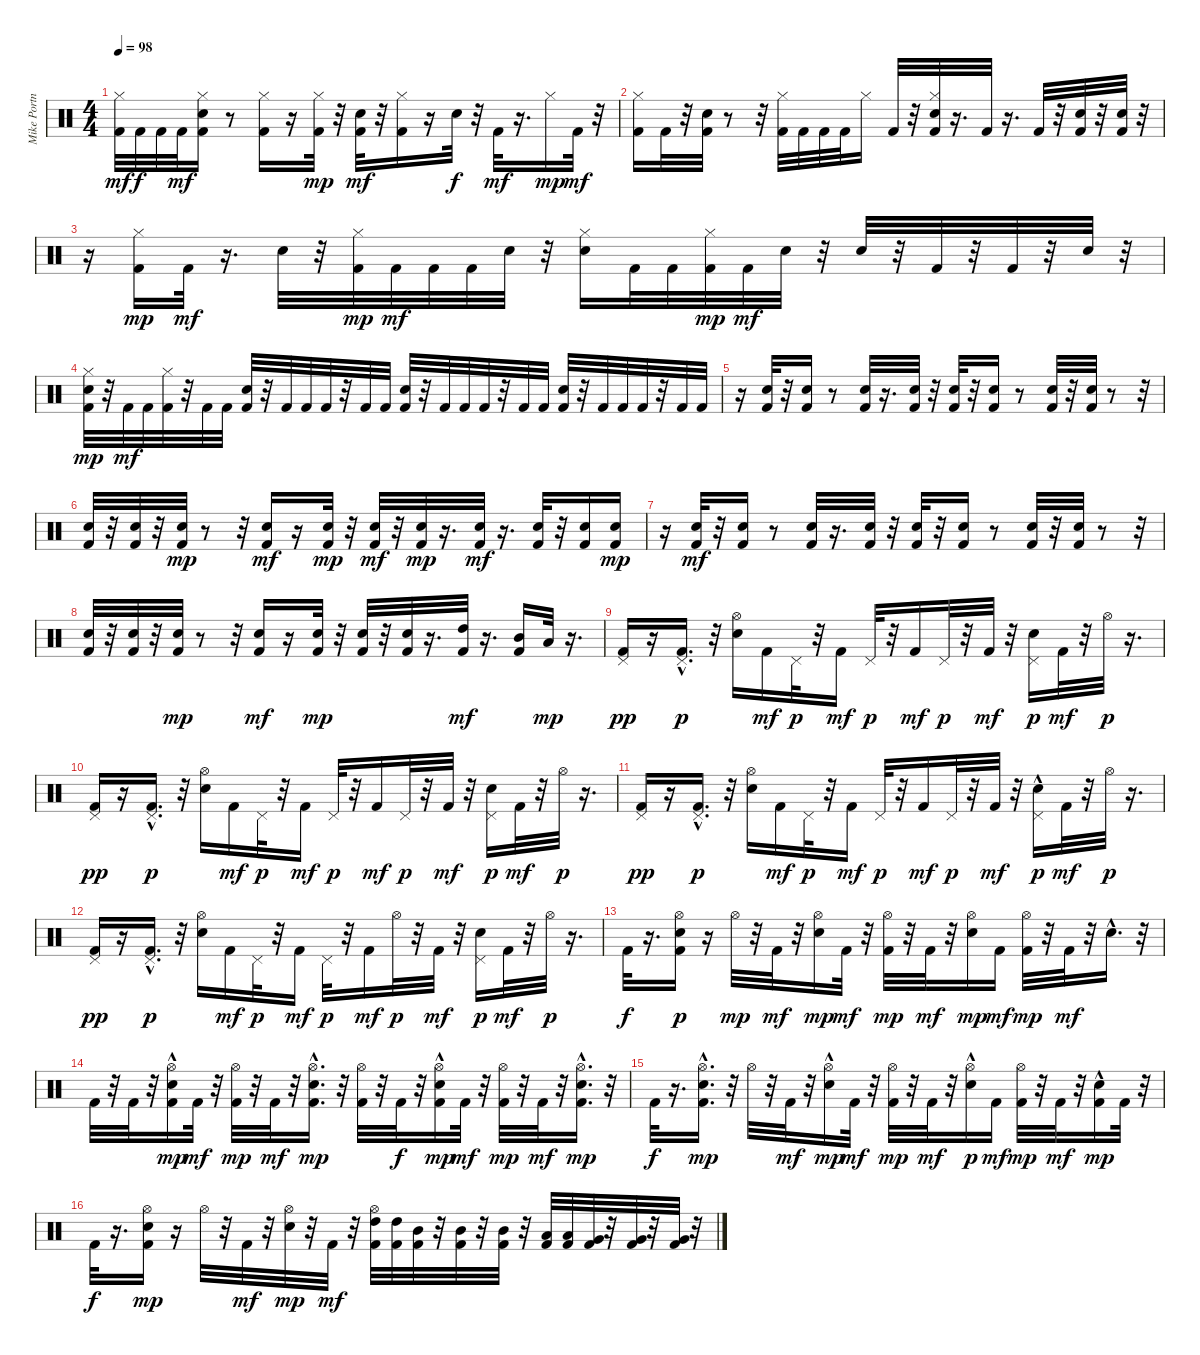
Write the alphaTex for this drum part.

\track ("Mike Portnoy" "Mike Portn") {instrument percussion}
\staff {score}
\articulation defaults
\ts (4 4)
\tempo 98
\clef neutral
\ks c
("Kick (hit) 2" "Hi-Hat (closed)").32{dy mf} "Kick (hit) 2".32{dy f} "Kick (hit) 2".32 "Kick (hit) 2".32{dy mf} ("Kick (hit) 2" "Electric Snare (hit)" "Hi-Hat (closed)").16 r.8 ("Kick (hit) 2" "Hi-Hat (closed)").16 r.16 ("Kick (hit) 2" "Hi-Hat (closed)").32{dy mp} r.32 ("Kick (hit) 2" "Electric Snare (hit)").32{dy mf} r.32 ("Kick (hit) 2" "Hi-Hat (closed)").16 r.16 "Electric Snare (hit)".32{dy f} r.32 "Kick (hit) 2".32{dy mf} r.16{d} "Hi-Hat (closed)".16{dy mp} "Kick (hit) 2".32{dy mf} r.32 |
("Kick (hit) 2" "Hi-Hat (closed)").16 "Kick (hit) 2".32 r.32 ("Kick (hit) 2" "Electric Snare (hit)").32 r.8 r.32 ("Kick (hit) 2" "Hi-Hat (closed)").32 "Kick (hit) 2".32 "Kick (hit) 2".32 "Kick (hit) 2".32 "Hi-Hat (closed)".16 "Kick (hit) 2".32 r.32 ("Kick (hit) 2" "Electric Snare (hit)" "Hi-Hat (closed)").32 r.16{d} "Kick (hit) 2".32 r.16{d} "Kick (hit) 2".32 r.32 ("Kick (hit) 2" "Electric Snare (hit)").32 r.32 ("Kick (hit) 2" "Electric Snare (hit)").32 r.32 |
r.16 ("Kick (hit) 2" "Hi-Hat (closed)").16{dy mp} "Kick (hit) 2".32{dy mf} r.16{d} "Electric Snare (hit)".32 r.32 ("Kick (hit) 2" "Hi-Hat (closed)").32{dy mp} "Kick (hit) 2".32{dy mf} "Kick (hit) 2".32 "Kick (hit) 2".32 "Electric Snare (hit)".32 r.32 ("Electric Snare (hit)" "Hi-Hat (closed)").16 "Kick (hit) 2".32 "Kick (hit) 2".32 ("Kick (hit) 2" "Hi-Hat (closed)").32{dy mp} "Kick (hit) 2".32{dy mf} "Electric Snare (hit)".32 r.32 "Electric Snare (hit)".32 r.32 "Kick (hit) 2".32 r.32 "Kick (hit) 2".32 r.32 "Electric Snare (hit)".32 r.32 |
("Kick (hit) 2" "Electric Snare (hit)" "Hi-Hat (closed)").32{dy mp} r.32 "Kick (hit) 2".32{dy mf} "Kick (hit) 2".32 ("Kick (hit) 2" "Hi-Hat (closed)").32 r.32 "Kick (hit) 2".32 "Kick (hit) 2".32 ("Kick (hit) 2" "Electric Snare (hit)").32 r.32 "Kick (hit) 2".32 "Kick (hit) 2".32 "Kick (hit) 2".32 r.32 "Kick (hit) 2".32 "Kick (hit) 2".32 ("Kick (hit) 2" "Electric Snare (hit)").32 r.32 "Kick (hit) 2".32 "Kick (hit) 2".32 "Kick (hit) 2".32 r.32 "Kick (hit) 2".32 "Kick (hit) 2".32 ("Kick (hit) 2" "Electric Snare (hit)").32 r.32 "Kick (hit) 2".32 "Kick (hit) 2".32 "Kick (hit) 2".32 r.32 "Kick (hit) 2".32 "Kick (hit) 2".32 |
r.16 ("Kick (hit) 2" "Electric Snare (hit)").32 r.32 ("Kick (hit) 2" "Electric Snare (hit)").16 r.8 ("Kick (hit) 2" "Electric Snare (hit)").32 r.16{d} ("Kick (hit) 2" "Electric Snare (hit)").32 r.32 ("Kick (hit) 2" "Electric Snare (hit)").32 r.32 ("Kick (hit) 2" "Electric Snare (hit)").16 r.8 ("Kick (hit) 2" "Electric Snare (hit)").32 r.32 ("Kick (hit) 2" "Electric Snare (hit)").32 r.8 r.32 |
("Kick (hit) 2" "Electric Snare (hit)").32 r.32 ("Kick (hit) 2" "Electric Snare (hit)").32 r.32 ("Kick (hit) 2" "Electric Snare (hit)").32{dy mp} r.8 r.32 ("Kick (hit) 2" "Electric Snare (hit)").16{dy mf} r.16 ("Kick (hit) 2" "Electric Snare (hit)").32{dy mp} r.32 ("Kick (hit) 2" "Electric Snare (hit)").32{dy mf} r.32 ("Kick (hit) 2" "Electric Snare (hit)").32{dy mp} r.16{d} ("Kick (hit) 2" "Electric Snare (hit)").32{dy mf} r.16{d} ("Kick (hit) 2" "Electric Snare (hit)").32 r.32 ("Kick (hit) 2" "Electric Snare (hit)").16 ("Kick (hit) 2" "Electric Snare (hit)").16{dy mp} |
r.16 ("Kick (hit) 2" "Electric Snare (hit)").32{dy mf} r.32 ("Kick (hit) 2" "Electric Snare (hit)").16 r.8 ("Kick (hit) 2" "Electric Snare (hit)").32 r.16{d} ("Kick (hit) 2" "Electric Snare (hit)").32 r.32 ("Kick (hit) 2" "Electric Snare (hit)").32 r.32 ("Kick (hit) 2" "Electric Snare (hit)").16 r.8 ("Kick (hit) 2" "Electric Snare (hit)").32 r.32 ("Kick (hit) 2" "Electric Snare (hit)").32 r.8 r.32 |
("Kick (hit) 2" "Electric Snare (hit)").32 r.32 ("Kick (hit) 2" "Electric Snare (hit)").32 r.32 ("Kick (hit) 2" "Electric Snare (hit)").32{dy mp} r.8 r.32 ("Kick (hit) 2" "Electric Snare (hit)").16{dy mf} r.16 ("Kick (hit) 2" "Electric Snare (hit)").32{dy mp} r.32 ("Kick (hit) 2" "Electric Snare (hit)").32 r.32 ("Kick (hit) 2" "Electric Snare (hit)").32 r.16{d} ("Kick (hit) 2" "High Tom (hit)").32{dy mf} r.16{d} ("Kick (hit) 2" "Mid Tom (hit)").16 "Low Tom (hit)".32{dy mp} r.16{d} |
("Kick (hit) 2" "Pedal Hi-Hat (hit)").16{dy pp} r.16 ("Kick (hit) 2"{hac} "Pedal Hi-Hat (hit)").16{d dy p} r.32 ("Electric Snare (hit)" "Hi-Hat (open)").16 "Kick (hit) 2".16{dy mf} "Pedal Hi-Hat (hit)".32{dy p} r.32 "Kick (hit) 2".16{dy mf} "Pedal Hi-Hat (hit)".32{dy p} r.32 "Kick (hit) 2".16{dy mf} "Pedal Hi-Hat (hit)".32{dy p} r.32 "Kick (hit) 2".32{dy mf} r.32 ("Electric Snare (hit)" "Pedal Hi-Hat (hit)").16{dy p} "Kick (hit) 2".32{dy mf} r.32 "Hi-Hat (open)".32{dy p} r.16{d} |
("Kick (hit) 2" "Pedal Hi-Hat (hit)").16{dy pp} r.16 ("Kick (hit) 2"{hac} "Pedal Hi-Hat (hit)").16{d dy p} r.32 ("Electric Snare (hit)" "Hi-Hat (open)").16 "Kick (hit) 2".16{dy mf} "Pedal Hi-Hat (hit)".32{dy p} r.32 "Kick (hit) 2".16{dy mf} "Pedal Hi-Hat (hit)".32{dy p} r.32 "Kick (hit) 2".16{dy mf} "Pedal Hi-Hat (hit)".32{dy p} r.32 "Kick (hit) 2".32{dy mf} r.32 ("Electric Snare (hit)" "Pedal Hi-Hat (hit)").16{dy p} "Kick (hit) 2".32{dy mf} r.32 "Hi-Hat (open)".32{dy p} r.16{d} |
("Kick (hit) 2" "Pedal Hi-Hat (hit)").16{dy pp} r.16 ("Kick (hit) 2"{hac} "Pedal Hi-Hat (hit)").16{d dy p} r.32 ("Electric Snare (hit)" "Hi-Hat (open)").16 "Kick (hit) 2".16{dy mf} "Pedal Hi-Hat (hit)".32{dy p} r.32 "Kick (hit) 2".16{dy mf} "Pedal Hi-Hat (hit)".32{dy p} r.32 "Kick (hit) 2".16{dy mf} "Pedal Hi-Hat (hit)".32{dy p} r.32 "Kick (hit) 2".32{dy mf} r.32 ("Electric Snare (hit)"{hac} "Pedal Hi-Hat (hit)").16{dy p} "Kick (hit) 2".32{dy mf} r.32 "Hi-Hat (open)".32{dy p} r.16{d} |
("Kick (hit) 2" "Pedal Hi-Hat (hit)").16{dy pp} r.16 ("Kick (hit) 2"{hac} "Pedal Hi-Hat (hit)").16{d dy p} r.32 ("Electric Snare (hit)" "Hi-Hat (open)").16 "Kick (hit) 2".16{dy mf} "Pedal Hi-Hat (hit)".32{dy p} r.32 "Kick (hit) 2".16{dy mf} "Pedal Hi-Hat (hit)".32{dy p} r.32 "Kick (hit) 2".16{dy mf} "Hi-Hat (open)".32{dy p} r.32 "Kick (hit) 2".32{dy mf} r.32 ("Electric Snare (hit)" "Pedal Hi-Hat (hit)").16{dy p} "Kick (hit) 2".32{dy mf} r.32 "Hi-Hat (open)".32{dy p} r.16{d} |
"Kick (hit) 2".32{dy f} r.16{d} ("Kick (hit) 2" "Electric Snare (hit)" "Hi-Hat (open)").16{dy p} r.16 "Hi-Hat (open)".32{dy mp} r.32 "Kick (hit) 2".32{dy mf} r.32 ("Electric Snare (hit)" "Hi-Hat (open)").16{dy mp} "Kick (hit) 2".32{dy mf} r.32 ("Kick (hit) 2" "Hi-Hat (open)").32{dy mp} r.32 "Kick (hit) 2".32{dy mf} r.32 ("Electric Snare (hit)" "Hi-Hat (open)").16{dy mp} "Kick (hit) 2".16{dy mf} ("Kick (hit) 2" "Hi-Hat (open)").32{dy mp} r.32 "Kick (hit) 2".32{dy mf} r.32 "Electric Snare (hit)"{hac}.16{d} r.32 |
"Kick (hit) 2".32 r.32 "Kick (hit) 2".32 r.32 ("Kick (hit) 2" "Electric Snare (hit)"{hac} "Hi-Hat (open)").16{dy mp} "Kick (hit) 2".32{dy mf} r.32 ("Kick (hit) 2" "Hi-Hat (open)").32{dy mp} r.32 "Kick (hit) 2".32{dy mf} r.32 ("Kick (hit) 2" "Electric Snare (hit)"{hac} "Hi-Hat (open)").16{d dy mp} r.32 ("Kick (hit) 2" "Hi-Hat (open)").32 r.32 "Kick (hit) 2".32{dy f} r.32 ("Kick (hit) 2" "Electric Snare (hit)"{hac} "Hi-Hat (open)").16{dy mp} "Kick (hit) 2".32{dy mf} r.32 ("Kick (hit) 2" "Hi-Hat (open)").32{dy mp} r.32 "Kick (hit) 2".32{dy mf} r.32 ("Kick (hit) 2" "Electric Snare (hit)"{hac} "Hi-Hat (open)").16{d dy mp} r.32 |
"Kick (hit) 2".32{dy f} r.16{d} ("Kick (hit) 2" "Electric Snare (hit)"{hac} "Hi-Hat (open)").16{d dy mp} r.32 "Hi-Hat (open)".32 r.32 "Kick (hit) 2".32{dy mf} r.32 ("Electric Snare (hit)"{hac} "Hi-Hat (open)").16{dy mp} "Kick (hit) 2".32{dy mf} r.32 ("Kick (hit) 2" "Hi-Hat (open)").32{dy mp} r.32 "Kick (hit) 2".32{dy mf} r.32 ("Electric Snare (hit)"{hac} "Hi-Hat (open)").16{dy p} "Kick (hit) 2".16{dy mf} ("Kick (hit) 2" "Hi-Hat (open)").32{dy mp} r.32 "Kick (hit) 2".32{dy mf} r.32 ("Kick (hit) 2" "Electric Snare (hit)"{hac}).16{dy mp} "Kick (hit) 2".32 r.32 |
"Kick (hit) 2".32{dy f} r.16{d} ("Kick (hit) 2" "Electric Snare (hit)" "Hi-Hat (open)").16{dy mp} r.16 "Hi-Hat (open)".32 r.32 "Kick (hit) 2".32{dy mf} r.32 ("Electric Snare (hit)" "Hi-Hat (open)").32{dy mp} r.32 "Kick (hit) 2".32{dy mf} r.32 ("Kick (hit) 2" "High Tom (hit)" "Hi-Hat (open)").32 ("Kick (hit) 2" "High Tom (hit)").32 ("Kick (hit) 2" "Mid Tom (hit)").32 r.32 ("Kick (hit) 2" "Mid Tom (hit)").32 r.32 ("Kick (hit) 2" "Mid Tom (hit)").32 r.32 ("Kick (hit) 2" "Low Tom (hit)").32 ("Kick (hit) 2" "Low Tom (hit)").32 ("Kick (hit) 2" "Very Low Tom (hit)").32 r.32 ("Kick (hit) 2" "Very Low Tom (hit)").32 r.32 ("Kick (hit) 2" "Very Low Tom (hit)").32 r.32
